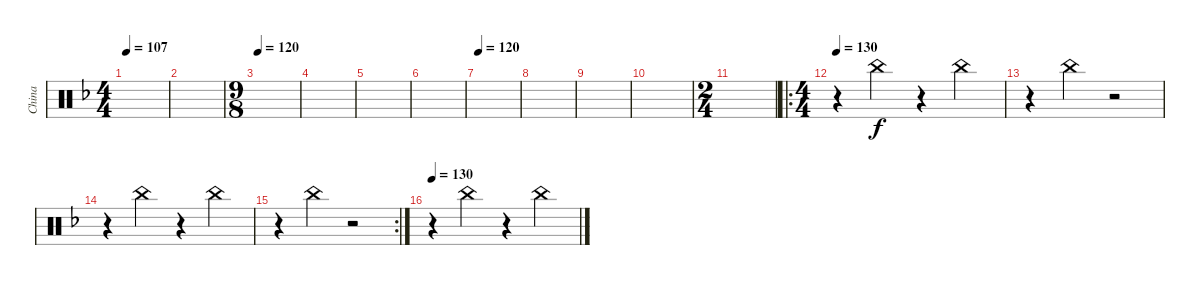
\track ("China" "China") {instrument percussion}
\staff {score}
\articulation defaults
\ts (4 4)
\tempo 107
\clef neutral
\ks dminor
|
|
\ts (9 8)
\tempo 120
|
|
|
|
\tempo 120
|
|
|
|
\ts (2 4)
|
\ro
\ts (4 4)
\tempo 130
r.4{balance 4} "China (hit)".4 r.4 "China (hit)".4 |
r.4 "China (hit)".4 r.2 |
r.4{balance 4} "China (hit)".4 r.4 "China (hit)".4 |
\rc 2
r.4 "China (hit)".4 r.2 |
\tempo 130
r.4{balance 4} "China (hit)".4 r.4 "China (hit)".4
